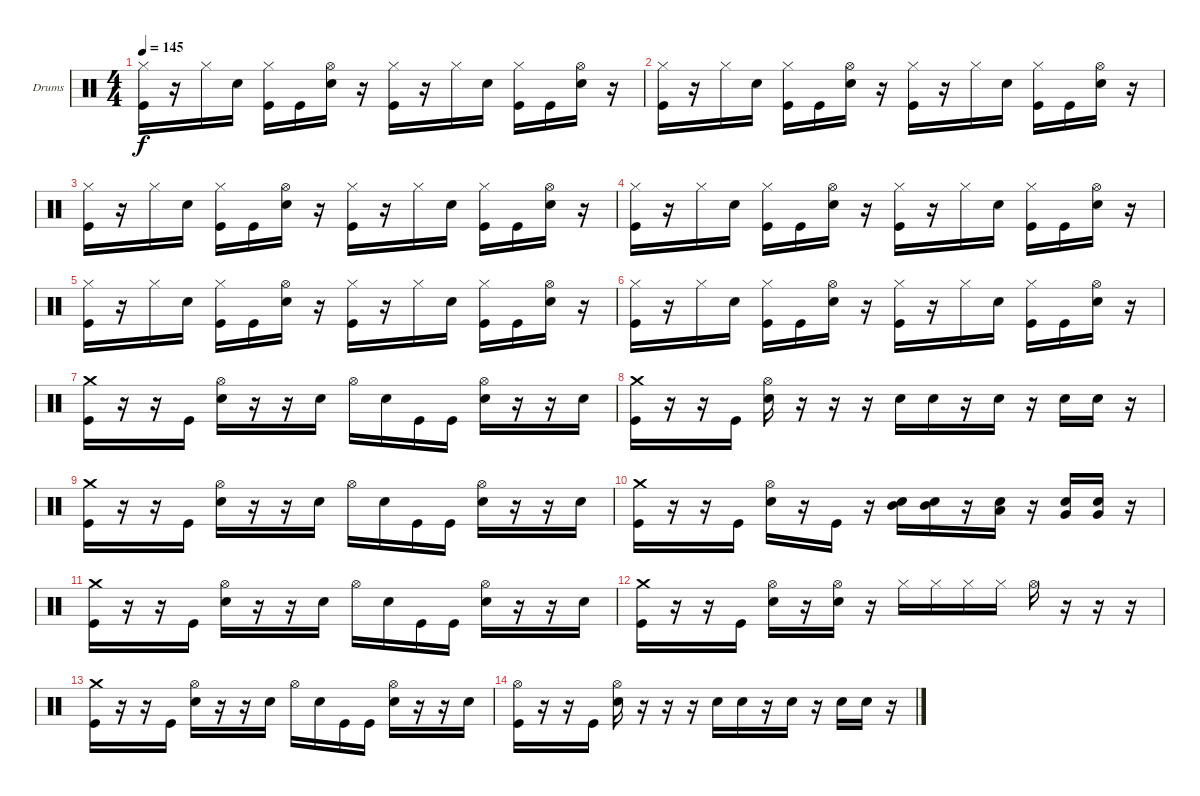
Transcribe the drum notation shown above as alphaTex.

\defaultSystemsLayout 4
\bracketExtendMode groupsimilarinstruments
\firstSystemTrackNameOrientation horizontal
\otherSystemsTrackNameOrientation horizontal
\track ("Drumkit" "Drums") {instrument percussion}
\staff {score}
\articulation defaults
\ts (4 4)
\tempo 145
\clef neutral
\ks c
("Kick (hit)" "Hi-Hat (closed)").16{dy f} r.16 "Hi-Hat (closed)".16 "Snare (hit) 2".16 ("Hi-Hat (closed)" "Kick (hit)").16 "Kick (hit)".16 ("Hi-Hat (open)" "Snare (hit) 2").16 r.16 ("Hi-Hat (closed)" "Kick (hit)").16 r.16 "Hi-Hat (closed)".16 "Snare (hit) 2".16 ("Hi-Hat (closed)" "Kick (hit)").16 "Kick (hit)".16 ("Hi-Hat (open)" "Snare (hit) 2").16 r.16 |
("Hi-Hat (closed)" "Kick (hit)").16 r.16 "Hi-Hat (closed)".16 "Snare (hit) 2".16 ("Hi-Hat (closed)" "Kick (hit)").16 "Kick (hit)".16 ("Hi-Hat (open)" "Snare (hit) 2").16 r.16 ("Hi-Hat (closed)" "Kick (hit)").16 r.16 "Hi-Hat (closed)".16 "Snare (hit) 2".16 ("Hi-Hat (closed)" "Kick (hit)").16 "Kick (hit)".16 ("Hi-Hat (open)" "Snare (hit) 2").16 r.16 |
("Kick (hit)" "Hi-Hat (closed)").16 r.16 "Hi-Hat (closed)".16 "Snare (hit) 2".16 ("Hi-Hat (closed)" "Kick (hit)").16 "Kick (hit)".16 ("Hi-Hat (open)" "Snare (hit) 2").16 r.16 ("Hi-Hat (closed)" "Kick (hit)").16 r.16 "Hi-Hat (closed)".16 "Snare (hit) 2".16 ("Hi-Hat (closed)" "Kick (hit)").16 "Kick (hit)".16 ("Hi-Hat (open)" "Snare (hit) 2").16 r.16 |
("Hi-Hat (closed)" "Kick (hit)").16 r.16 "Hi-Hat (closed)".16 "Snare (hit) 2".16 ("Hi-Hat (closed)" "Kick (hit)").16 "Kick (hit)".16 ("Hi-Hat (open)" "Snare (hit) 2").16 r.16 ("Hi-Hat (closed)" "Kick (hit)").16 r.16 "Hi-Hat (closed)".16 "Snare (hit) 2".16 ("Hi-Hat (closed)" "Kick (hit)").16 "Kick (hit)".16 ("Hi-Hat (open)" "Snare (hit) 2").16 r.16 |
("Kick (hit)" "Hi-Hat (closed)").16 r.16 "Hi-Hat (closed)".16 "Snare (hit) 2".16 ("Hi-Hat (closed)" "Kick (hit)").16 "Kick (hit)".16 ("Hi-Hat (open)" "Snare (hit) 2").16 r.16 ("Hi-Hat (closed)" "Kick (hit)").16 r.16 "Hi-Hat (closed)".16 "Snare (hit) 2".16 ("Hi-Hat (closed)" "Kick (hit)").16 "Kick (hit)".16 ("Hi-Hat (open)" "Snare (hit) 2").16 r.16 |
("Hi-Hat (closed)" "Kick (hit)").16 r.16 "Hi-Hat (closed)".16 "Snare (hit) 2".16 ("Hi-Hat (closed)" "Kick (hit)").16 "Kick (hit)".16 ("Hi-Hat (open)" "Snare (hit) 2").16 r.16 ("Hi-Hat (closed)" "Kick (hit)").16 r.16 "Hi-Hat (closed)".16 "Snare (hit) 2".16 ("Hi-Hat (closed)" "Kick (hit)").16 "Kick (hit)".16 ("Hi-Hat (open)" "Snare (hit) 2").16 r.16 |
("Crash medium (hit)" "Kick (hit)").16 r.16 r.16 "Kick (hit)".16 ("Hi-Hat (open)" "Snare (hit) 2").16 r.16 r.16 "Snare (hit) 2".16 "Hi-Hat (open)".16 "Snare (hit) 2".16 "Kick (hit)".16 "Kick (hit)".16 ("Hi-Hat (open)" "Snare (hit) 2").16 r.16 r.16 "Snare (hit) 2".16 |
("Crash medium (hit)" "Kick (hit)").16 r.16 r.16 "Kick (hit)".16 ("Hi-Hat (open)" "Snare (hit) 2").16 r.16 r.16 r.16 "Snare (hit) 2".16 "Snare (hit) 2".16 r.16 "Snare (hit) 2".16 r.16 "Snare (hit) 2".16 "Snare (hit) 2".16 r.16 |
("Crash medium (hit)" "Kick (hit)").16 r.16 r.16 "Kick (hit)".16 ("Hi-Hat (open)" "Snare (hit) 2").16 r.16 r.16 "Snare (hit) 2".16 "Hi-Hat (open)".16 "Snare (hit) 2".16 "Kick (hit)".16 "Kick (hit)".16 ("Hi-Hat (open)" "Snare (hit) 2").16 r.16 r.16 "Snare (hit) 2".16 |
("Crash medium (hit)" "Kick (hit)").16 r.16 r.16 "Kick (hit)".16 ("Hi-Hat (open)" "Snare (hit) 2").16 r.16 "Kick (hit)".16 r.16 ("Mid Tom (hit)" "Snare (hit) 2").16 ("Mid Tom (hit)" "Snare (hit) 2").16 r.16 ("Low Tom (hit)" "Snare (hit) 2").16 r.16 ("Very Low Tom (hit)" "Snare (hit) 2").16 ("Very Low Tom (hit)" "Snare (hit) 2").16 r.16 |
("Crash medium (hit)" "Kick (hit)").16 r.16 r.16 "Kick (hit)".16 ("Hi-Hat (open)" "Snare (hit) 2").16 r.16 r.16 "Snare (hit) 2".16 "Hi-Hat (open)".16 "Snare (hit) 2".16 "Kick (hit)".16 "Kick (hit)".16 ("Hi-Hat (open)" "Snare (hit) 2").16 r.16 r.16 "Snare (hit) 2".16 |
("Crash medium (hit)" "Kick (hit)").16 r.16 r.16 "Kick (hit)".16 ("Hi-Hat (open)" "Snare (hit) 2").16 r.16 ("Hi-Hat (open)" "Snare (hit) 2").16 r.16 "Hi-Hat (closed)".16 "Hi-Hat (closed)".16 "Hi-Hat (closed)".16 "Hi-Hat (closed)".16 "Hi-Hat (open)".16 r.16 r.16 r.16 |
("Crash medium (hit)" "Kick (hit)").16 r.16 r.16 "Kick (hit)".16 ("Hi-Hat (open)" "Snare (hit) 2").16 r.16 r.16 "Snare (hit) 2".16 "Hi-Hat (open)".16 "Snare (hit) 2".16 "Kick (hit)".16 "Kick (hit)".16 ("Hi-Hat (open)" "Snare (hit) 2").16 r.16 r.16 "Snare (hit) 2".16 |
("Hi-Hat (open)" "Kick (hit)").16 r.16 r.16 "Kick (hit)".16 ("Hi-Hat (open)" "Snare (hit) 2").16 r.16 r.16 r.16 "Snare (hit) 2".16 "Snare (hit) 2".16 r.16 "Snare (hit) 2".16 r.16 "Snare (hit) 2".16 "Snare (hit) 2".16 r.16
